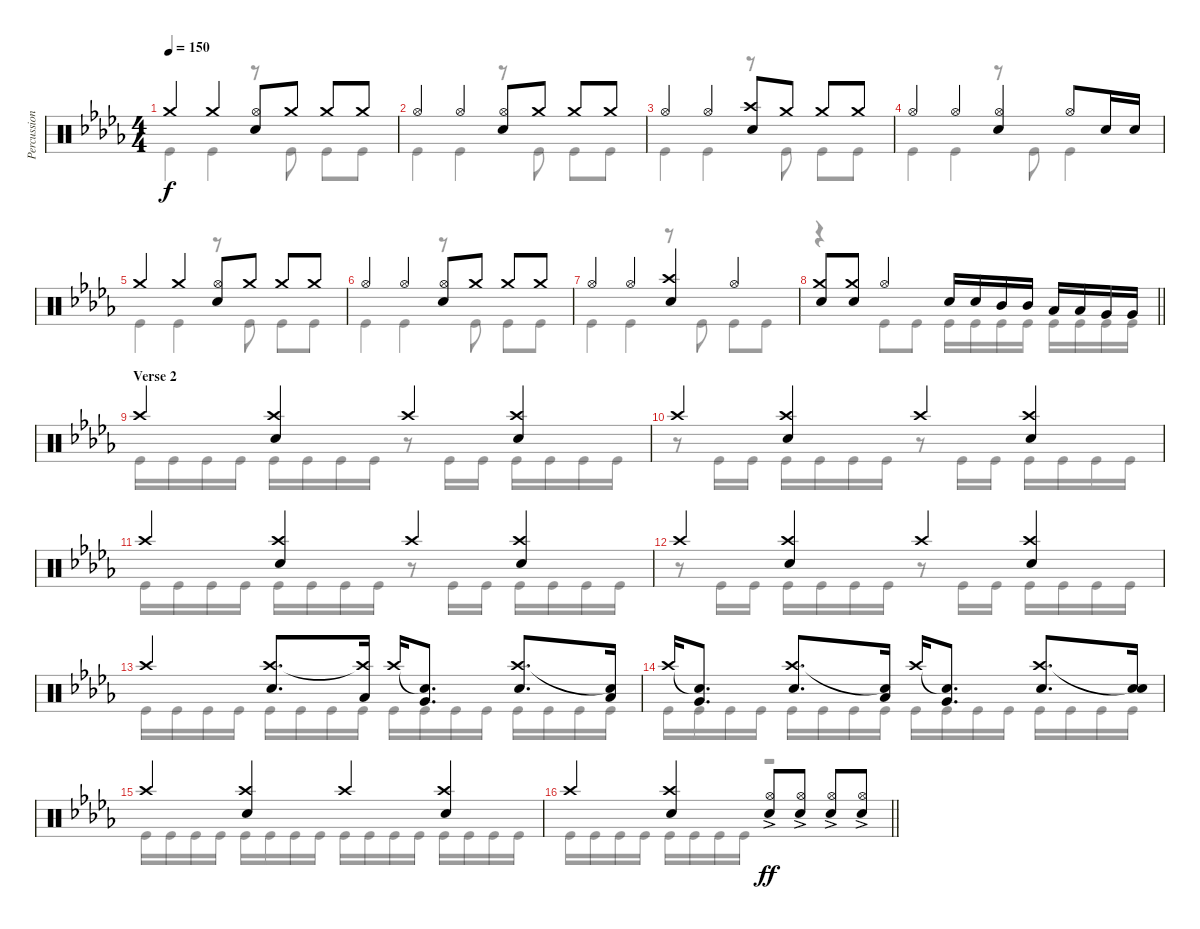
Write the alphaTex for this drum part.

\track ("Percussion" "Percussion") {instrument percussion}
\staff {score}
\articulation defaults
\voice
\ts (4 4)
\tempo 150
\clef neutral
\ks bbminor "Crash medium (hit)".4{dy f} "Crash medium (hit)".4
("Hi-Hat (open)" "Electric Snare (hit)").8 "Crash medium (hit)".8 "Crash medium (hit)".8 "Crash medium (hit)".8 |
"Hi-Hat (open)".4 "Hi-Hat (open)".4 ("Hi-Hat (open)" "Electric Snare (hit)").8 "Crash medium (hit)".8 "Crash medium (hit)".8 "Crash medium (hit)".8 |
"Hi-Hat (open)".4 "Hi-Hat (open)".4 ("Crash high (hit)" "Electric Snare (hit)").8 "Crash medium (hit)".8 "Crash medium (hit)".8 "Crash medium (hit)".8 |
"Hi-Hat (open)".4 "Hi-Hat (open)".4 ("Hi-Hat (open)" "Electric Snare (hit)").4 "Hi-Hat (open)".8 "Electric Snare (hit)".16 "Electric Snare (hit)".16 |
"Crash medium (hit)".4 "Crash medium (hit)".4 ("Hi-Hat (open)" "Electric Snare (hit)").8 "Crash medium (hit)".8 "Crash medium (hit)".8 "Crash medium (hit)".8 |
"Hi-Hat (open)".4 "Hi-Hat (open)".4 ("Hi-Hat (open)" "Electric Snare (hit)").8 "Crash medium (hit)".8 "Crash medium (hit)".8 "Crash medium (hit)".8 |
"Hi-Hat (open)".4 "Hi-Hat (open)".4 ("Crash high (hit)" "Electric Snare (hit)").4 "Hi-Hat (open)".4 |
\barLineRight lightlight
("Crash medium (hit)" "Electric Snare (hit)").8 ("Crash medium (hit)" "Electric Snare (hit)").8 "Hi-Hat (open)".4 "Electric Snare (hit)".16 "Electric Snare (hit)".16 "Mid Tom (hit)".16 "Mid Tom (hit)".16 "Low Tom (hit)".16 "Low Tom (hit)".16 "Very Low Tom (hit)".16 "Very Low Tom (hit)".16 |
\section ("" "Verse 2")
"Crash high (hit)".4 ("Crash high (hit)" "Electric Snare (hit)").4 "Crash high (hit)".4 ("Crash high (hit)" "Electric Snare (hit)").4 |
"Crash high (hit)".4 ("Crash high (hit)" "Electric Snare (hit)").4 "Crash high (hit)".4 ("Crash high (hit)" "Electric Snare (hit)").4 |
"Crash high (hit)".4 ("Crash high (hit)" "Electric Snare (hit)").4 "Crash high (hit)".4 ("Crash high (hit)" "Electric Snare (hit)").4 |
"Crash high (hit)".4 ("Crash high (hit)" "Electric Snare (hit)").4 "Crash high (hit)".4 ("Crash high (hit)" "Electric Snare (hit)").4 |
"Crash high (hit)".4 ("Crash high (hit)" "Electric Snare (hit)").8{d} ("Crash high (hit)"{t} "Low Tom (hit)").16 "Crash high (hit)".16 ("Snare (hit)"{t} "Very Low Tom (hit)").8{d} ("Crash high (hit)" "Electric Snare (hit)").8{d} ("Snare (hit)"{t} "Low Tom (hit)").16 |
"Crash high (hit)".16 ("Snare (hit)"{t} "Very Low Tom (hit)").8{d} ("Crash high (hit)" "Electric Snare (hit)").8{d} ("Snare (hit)"{t} "Low Tom (hit)").16 "Crash high (hit)".16 ("Snare (hit)"{t} "Very Low Tom (hit)").8{d} ("Crash high (hit)" "Electric Snare (hit)").8{d} ("Snare (hit)"{t} "Electric Snare (hit)").16 |
"Crash high (hit)".4 ("Crash high (hit)" "Electric Snare (hit)").4 "Crash high (hit)".4 ("Crash high (hit)" "Electric Snare (hit)").4 |
\barLineRight lightlight "Crash high (hit)".4
("Crash high (hit)" "Electric Snare (hit)").4 ("Hi-Hat (open)"{ac} "Electric Snare (hit)"{ac}).8{dy ff} ("Hi-Hat (open)"{ac} "Electric Snare (hit)"{ac}).8 ("Hi-Hat (open)"{ac} "Electric Snare (hit)"{ac}).8 ("Hi-Hat (open)"{ac} "Electric Snare (hit)"{ac}).8
\voice
\clef neutral
\ottava regular
\simile none
\ks bbminor "Kick (hit)".4{dy f} "Kick (hit)".4
r.8 "Kick (hit)".8 "Kick (hit)".8 "Kick (hit)".8 |
"Kick (hit)".4 "Kick (hit)".4 r.8 "Kick (hit)".8 "Kick (hit)".8 "Kick (hit)".8 |
"Kick (hit)".4 "Kick (hit)".4 r.8 "Kick (hit)".8 "Kick (hit)".8 "Kick (hit)".8 |
"Kick (hit)".4 "Kick (hit)".4 r.8 "Kick (hit)".8 "Kick (hit)".4 |
"Kick (hit)".4 "Kick (hit)".4 r.8 "Kick (hit)".8 "Kick (hit)".8 "Kick (hit)".8 |
"Kick (hit)".4 "Kick (hit)".4 r.8 "Kick (hit)".8 "Kick (hit)".8 "Kick (hit)".8 |
"Kick (hit)".4 "Kick (hit)".4 r.8 "Kick (hit)".8 "Kick (hit)".8 "Kick (hit)".8 |
\barLineRight lightlight
r.4 "Kick (hit)".8 "Kick (hit)".8 "Kick (hit)".16 "Kick (hit)".16 "Kick (hit)".16 "Kick (hit)".16 "Kick (hit)".16 "Kick (hit)".16 "Kick (hit)".16 "Kick (hit)".16 |
"Kick (hit)".16 "Kick (hit)".16 "Kick (hit)".16 "Kick (hit)".16 "Kick (hit)".16 "Kick (hit)".16 "Kick (hit)".16 "Kick (hit)".16 r.8 "Kick (hit)".16 "Kick (hit)".16 "Kick (hit)".16 "Kick (hit)".16 "Kick (hit)".16 "Kick (hit)".16 |
r.8 "Kick (hit)".16 "Kick (hit)".16 "Kick (hit)".16 "Kick (hit)".16 "Kick (hit)".16 "Kick (hit)".16 r.8 "Kick (hit)".16 "Kick (hit)".16 "Kick (hit)".16 "Kick (hit)".16 "Kick (hit)".16 "Kick (hit)".16 |
"Kick (hit)".16 "Kick (hit)".16 "Kick (hit)".16 "Kick (hit)".16 "Kick (hit)".16 "Kick (hit)".16 "Kick (hit)".16 "Kick (hit)".16 r.8 "Kick (hit)".16 "Kick (hit)".16 "Kick (hit)".16 "Kick (hit)".16 "Kick (hit)".16 "Kick (hit)".16 |
r.8 "Kick (hit)".16 "Kick (hit)".16 "Kick (hit)".16 "Kick (hit)".16 "Kick (hit)".16 "Kick (hit)".16 r.8 "Kick (hit)".16 "Kick (hit)".16 "Kick (hit)".16 "Kick (hit)".16 "Kick (hit)".16 "Kick (hit)".16 |
"Kick (hit)".16 "Kick (hit)".16 "Kick (hit)".16 "Kick (hit)".16 "Kick (hit)".16 "Kick (hit)".16 "Kick (hit)".16 "Kick (hit)".16 "Kick (hit)".16 "Kick (hit)".16 "Kick (hit)".16 "Kick (hit)".16 "Kick (hit)".16 "Kick (hit)".16 "Kick (hit)".16 "Kick (hit)".16 |
"Kick (hit)".16 "Kick (hit)".16 "Kick (hit)".16 "Kick (hit)".16 "Kick (hit)".16 "Kick (hit)".16 "Kick (hit)".16 "Kick (hit)".16 "Kick (hit)".16 "Kick (hit)".16 "Kick (hit)".16 "Kick (hit)".16 "Kick (hit)".16 "Kick (hit)".16 "Kick (hit)".16 "Kick (hit)".16 |
"Kick (hit)".16 "Kick (hit)".16 "Kick (hit)".16 "Kick (hit)".16 "Kick (hit)".16 "Kick (hit)".16 "Kick (hit)".16 "Kick (hit)".16 "Kick (hit)".16 "Kick (hit)".16 "Kick (hit)".16 "Kick (hit)".16 "Kick (hit)".16 "Kick (hit)".16 "Kick (hit)".16 "Kick (hit)".16 |
\barLineRight lightlight "Kick (hit)".16 "Kick (hit)".16 "Kick (hit)".16 "Kick (hit)".16 "Kick (hit)".16 "Kick (hit)".16 "Kick (hit)".16 "Kick (hit)".16
r.2
